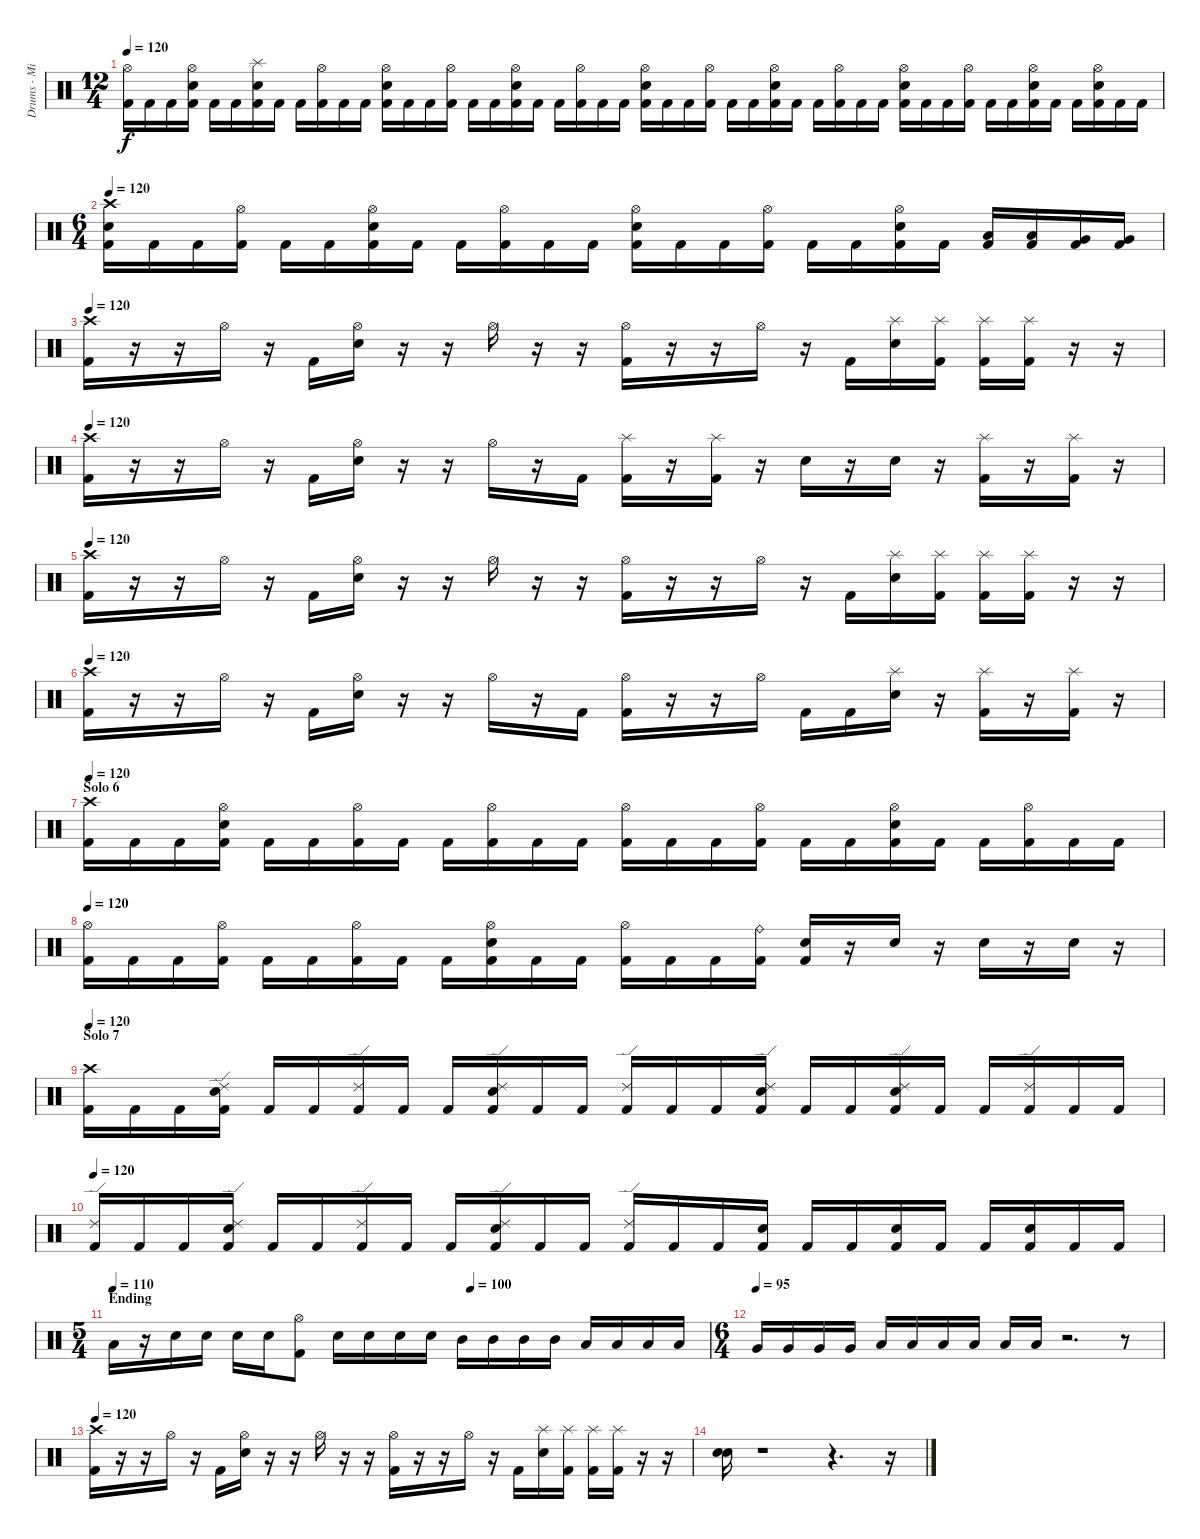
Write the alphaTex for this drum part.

\track ("Drums - Mikkey Dee" "Drums - Mi") {instrument percussion}
\staff {score}
\articulation defaults
\ts (12 4)
\tempo 120
\clef neutral
\ks c
("Hi-Hat (open)" "Kick (hit) 2").16{dy f} "Kick (hit) 2".16 "Kick (hit) 2".16 ("Hi-Hat (open)" "Electric Snare (hit)" "Kick (hit) 2").16 "Kick (hit) 2".16 "Kick (hit) 2".16 ("Splash (hit)" "Electric Snare (hit)" "Kick (hit) 2").16 "Kick (hit) 2".16 "Kick (hit) 2".16 ("Hi-Hat (open)" "Kick (hit) 2").16 "Kick (hit) 2".16 "Kick (hit) 2".16 ("Hi-Hat (open)" "Electric Snare (hit)" "Kick (hit) 2").16 "Kick (hit) 2".16 "Kick (hit) 2".16 ("Hi-Hat (open)" "Kick (hit) 2").16 "Kick (hit) 2".16 "Kick (hit) 2".16 ("Hi-Hat (open)" "Electric Snare (hit)" "Kick (hit) 2").16 "Kick (hit) 2".16 "Kick (hit) 2".16 ("Hi-Hat (open)" "Kick (hit) 2").16 "Kick (hit) 2".16 "Kick (hit) 2".16 ("Hi-Hat (open)" "Electric Snare (hit)" "Kick (hit) 2").16 "Kick (hit) 2".16 "Kick (hit) 2".16 ("Hi-Hat (open)" "Kick (hit) 2").16 "Kick (hit) 2".16 "Kick (hit) 2".16 ("Hi-Hat (open)" "Electric Snare (hit)" "Kick (hit) 2").16 "Kick (hit) 2".16 "Kick (hit) 2".16 ("Hi-Hat (open)" "Kick (hit) 2").16 "Kick (hit) 2".16 "Kick (hit) 2".16 ("Hi-Hat (open)" "Electric Snare (hit)" "Kick (hit) 2").16 "Kick (hit) 2".16 "Kick (hit) 2".16 ("Hi-Hat (open)" "Kick (hit) 2").16 "Kick (hit) 2".16 "Kick (hit) 2".16 ("Hi-Hat (open)" "Electric Snare (hit)" "Kick (hit) 2").16 "Kick (hit) 2".16 "Kick (hit) 2".16 ("Hi-Hat (open)" "Electric Snare (hit)" "Kick (hit) 2").16 "Kick (hit) 2".16 "Kick (hit) 2".16 |
\ts (6 4)
\tempo 120
("Crash high (hit)" "Electric Snare (hit)" "Kick (hit) 2").16 "Kick (hit) 2".16 "Kick (hit) 2".16 ("Hi-Hat (open)" "Kick (hit) 2").16 "Kick (hit) 2".16 "Kick (hit) 2".16 ("Hi-Hat (open)" "Electric Snare (hit)" "Kick (hit) 2").16 "Kick (hit) 2".16 "Kick (hit) 2".16 ("Hi-Hat (open)" "Kick (hit) 2").16 "Kick (hit) 2".16 "Kick (hit) 2".16 ("Hi-Hat (open)" "Electric Snare (hit)" "Kick (hit) 2").16 "Kick (hit) 2".16 "Kick (hit) 2".16 ("Hi-Hat (open)" "Kick (hit) 2").16 "Kick (hit) 2".16 "Kick (hit) 2".16 ("Hi-Hat (open)" "Electric Snare (hit)" "Kick (hit) 2").16 "Kick (hit) 2".16 ("Low Tom (hit)" "Kick (hit) 2").16 ("Low Tom (hit)" "Kick (hit) 2").16 ("Very Low Tom (hit)" "Kick (hit) 2").16 ("Very Low Tom (hit)" "Kick (hit) 2").16 |
\tempo 120
("Crash high (hit)" "Kick (hit) 2").16 r.16 r.16 "Hi-Hat (open)".16 r.16 "Kick (hit) 2".16 ("Hi-Hat (open)" "Electric Snare (hit)").16 r.16 r.16 "Hi-Hat (open)".16 r.16 r.16 ("Hi-Hat (open)" "Kick (hit) 2").16 r.16 r.16 "Hi-Hat (open)".16 r.16 "Kick (hit) 2".16 ("Splash (hit)" "Electric Snare (hit)").16 ("Splash (hit)" "Kick (hit) 2").16 ("Splash (hit)" "Kick (hit) 2").16 ("Splash (hit)" "Kick (hit) 2").16 r.16 r.16 |
\tempo 120
("Crash high (hit)" "Kick (hit) 2").16 r.16 r.16 "Hi-Hat (open)".16 r.16 "Kick (hit) 2".16 ("Hi-Hat (open)" "Electric Snare (hit)").16 r.16 r.16 "Hi-Hat (open)".16 r.16 "Kick (hit) 2".16 ("Splash (hit)" "Kick (hit) 2").16 r.16 ("Splash (hit)" "Kick (hit) 2").16 r.16 "Electric Snare (hit)".16 r.16 "Electric Snare (hit)".16 r.16 ("Splash (hit)" "Kick (hit) 2").16 r.16 ("Splash (hit)" "Kick (hit) 2").16 r.16 |
\tempo 120
("Crash high (hit)" "Kick (hit) 2").16 r.16 r.16 "Hi-Hat (open)".16 r.16 "Kick (hit) 2".16 ("Hi-Hat (open)" "Electric Snare (hit)").16 r.16 r.16 "Hi-Hat (open)".16 r.16 r.16 ("Hi-Hat (open)" "Kick (hit) 2").16 r.16 r.16 "Hi-Hat (open)".16 r.16 "Kick (hit) 2".16 ("Splash (hit)" "Electric Snare (hit)").16 ("Splash (hit)" "Kick (hit) 2").16 ("Splash (hit)" "Kick (hit) 2").16 ("Splash (hit)" "Kick (hit) 2").16 r.16 r.16 |
\tempo 120
("Crash high (hit)" "Kick (hit) 2").16 r.16 r.16 "Hi-Hat (open)".16 r.16 "Kick (hit) 2".16 ("Hi-Hat (open)" "Electric Snare (hit)").16 r.16 r.16 "Hi-Hat (open)".16 r.16 "Kick (hit) 2".16 ("Hi-Hat (open)" "Kick (hit) 2").16 r.16 r.16 "Hi-Hat (open)".16 "Kick (hit) 2".16 "Kick (hit) 2".16 ("Splash (hit)" "Electric Snare (hit)").16 r.16 ("Splash (hit)" "Kick (hit) 2").16 r.16 ("Splash (hit)" "Kick (hit) 2").16 r.16 |
\section ("" "Solo 6")
\tempo 120
("Crash high (hit)" "Kick (hit) 2").16 "Kick (hit) 2".16 "Kick (hit) 2".16 ("Hi-Hat (open)" "Electric Snare (hit)" "Kick (hit) 2").16 "Kick (hit) 2".16 "Kick (hit) 2".16 ("Hi-Hat (open)" "Kick (hit) 2").16 "Kick (hit) 2".16 "Kick (hit) 2".16 ("Hi-Hat (open)" "Kick (hit) 2").16 "Kick (hit) 2".16 "Kick (hit) 2".16 ("Hi-Hat (open)" "Kick (hit) 2").16 "Kick (hit) 2".16 "Kick (hit) 2".16 ("Hi-Hat (open)" "Kick (hit) 2").16 "Kick (hit) 2".16 "Kick (hit) 2".16 ("Hi-Hat (open)" "Electric Snare (hit)" "Kick (hit) 2").16 "Kick (hit) 2".16 "Kick (hit) 2".16 ("Hi-Hat (open)" "Kick (hit) 2").16 "Kick (hit) 2".16 "Kick (hit) 2".16 |
\tempo 120
("Hi-Hat (open)" "Kick (hit) 2").16 "Kick (hit) 2".16 "Kick (hit) 2".16 ("Hi-Hat (open)" "Kick (hit) 2").16 "Kick (hit) 2".16 "Kick (hit) 2".16 ("Hi-Hat (open)" "Kick (hit) 2").16 "Kick (hit) 2".16 "Kick (hit) 2".16 ("Hi-Hat (open)" "Electric Snare (hit)" "Kick (hit) 2").16 "Kick (hit) 2".16 "Kick (hit) 2".16 ("Hi-Hat (open)" "Kick (hit) 2").16 "Kick (hit) 2".16 "Kick (hit) 2".16 ("Ride (bell)" "Kick (hit) 2").16 ("Electric Snare (hit)" "Kick (hit) 2").16 r.16 "Electric Snare (hit)".16 r.16 "Electric Snare (hit)".16 r.16 "Electric Snare (hit)".16 r.16 |
\section ("" "Solo 7")
\tempo 120
("Crash high (hit)" "Kick (hit) 2").16 "Kick (hit) 2".16 "Kick (hit) 2".16 ("Ride (edge) 2" "Electric Snare (hit)" "Kick (hit) 2").16 "Kick (hit) 2".16 "Kick (hit) 2".16 ("Ride (edge) 2" "Kick (hit) 2").16 "Kick (hit) 2".16 "Kick (hit) 2".16 ("Ride (edge) 2" "Electric Snare (hit)" "Kick (hit) 2").16 "Kick (hit) 2".16 "Kick (hit) 2".16 ("Ride (edge) 2" "Kick (hit) 2").16 "Kick (hit) 2".16 "Kick (hit) 2".16 ("Ride (edge) 2" "Electric Snare (hit)" "Kick (hit) 2").16 "Kick (hit) 2".16 "Kick (hit) 2".16 ("Ride (edge) 2" "Electric Snare (hit)" "Kick (hit) 2").16 "Kick (hit) 2".16 "Kick (hit) 2".16 ("Ride (edge) 2" "Kick (hit) 2").16 "Kick (hit) 2".16 "Kick (hit) 2".16 |
\tempo 120
("Ride (edge) 2" "Kick (hit) 2").16 "Kick (hit) 2".16 "Kick (hit) 2".16 ("Ride (edge) 2" "Electric Snare (hit)" "Kick (hit) 2").16 "Kick (hit) 2".16 "Kick (hit) 2".16 ("Ride (edge) 2" "Kick (hit) 2").16 "Kick (hit) 2".16 "Kick (hit) 2".16 ("Ride (edge) 2" "Electric Snare (hit)" "Kick (hit) 2").16 "Kick (hit) 2".16 "Kick (hit) 2".16 ("Ride (edge) 2" "Kick (hit) 2").16 "Kick (hit) 2".16 "Kick (hit) 2".16 ("Electric Snare (hit)" "Kick (hit) 2").16 "Kick (hit) 2".16 "Kick (hit) 2".16 ("Electric Snare (hit)" "Kick (hit) 2").16 "Kick (hit) 2".16 "Kick (hit) 2".16 ("Electric Snare (hit)" "Kick (hit) 2").16 "Kick (hit) 2".16 "Kick (hit) 2".16 |
\ts (5 4)
\section ("" "Ending")
\tempo 110
\tempo (100 0.6)
"Low Tom (hit)".16 r.16 "Electric Snare (hit)".16 "Electric Snare (hit)".16 "Electric Snare (hit)".16 "Electric Snare (hit)".16 ("Hi-Hat (open)" "Kick (hit) 2").8 "Electric Snare (hit)".16 "Electric Snare (hit)".16 "Electric Snare (hit)".16 "Electric Snare (hit)".16 "Mid Tom (hit)".16 "Mid Tom (hit)".16 "Mid Tom (hit)".16 "Mid Tom (hit)".16 "Low Tom (hit)".16 "Low Tom (hit)".16 "Low Tom (hit)".16 "Low Tom (hit)".16 |
\ts (6 4)
\tempo (95)
"Very Low Tom (hit)".16 "Very Low Tom (hit)".16 "Very Low Tom (hit)".16 "Very Low Tom (hit)".16 "Low Floor Tom (hit)".16 "Low Floor Tom (hit)".16 "Low Floor Tom (hit)".16 "Low Floor Tom (hit)".16 "Low Floor Tom (hit)".16 "Low Floor Tom (hit)".16 r.2{d} r.8 |
\tempo 120
("Crash high (hit)" "Kick (hit) 2").16 r.16 r.16 "Hi-Hat (open)".16 r.16 "Kick (hit) 2".16 ("Hi-Hat (open)" "Electric Snare (hit)").16 r.16 r.16 "Hi-Hat (open)".16 r.16 r.16 ("Hi-Hat (open)" "Kick (hit) 2").16 r.16 r.16 "Hi-Hat (open)".16 r.16 "Kick (hit) 2".16 ("Splash (hit)" "Electric Snare (hit)").16 ("Splash (hit)" "Kick (hit) 2").16 ("Splash (hit)" "Kick (hit) 2").16 ("Splash (hit)" "Kick (hit) 2").16 r.16 r.16 |
("Snare (hit) 2" "Electric Snare (hit)").16 r.1 r.4{d} r.16
